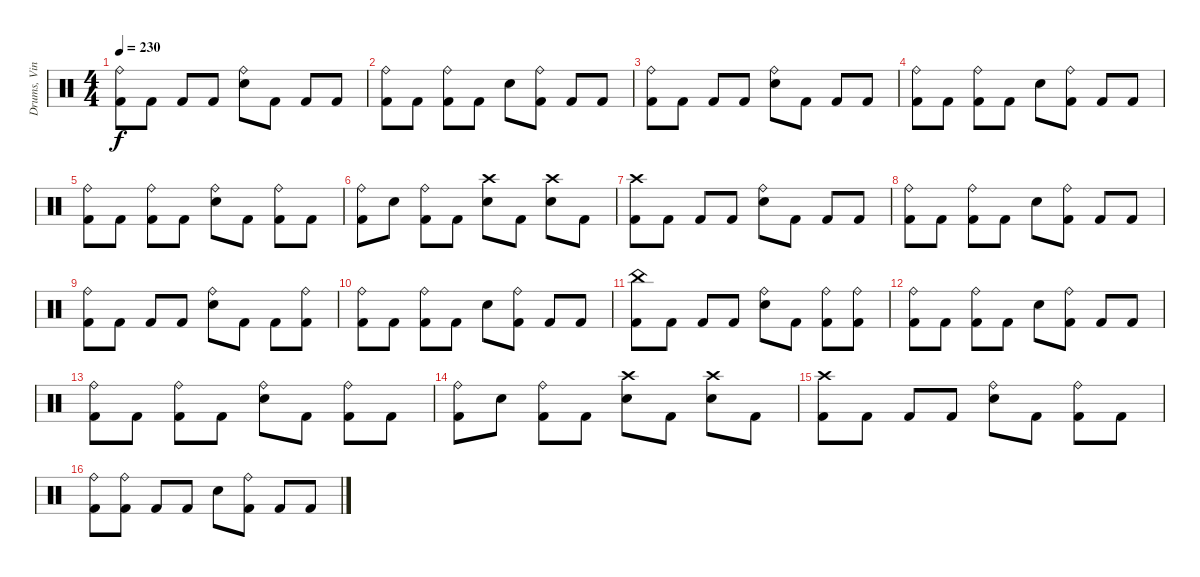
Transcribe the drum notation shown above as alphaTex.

\track ("Drums, Vinnie" "Drums, Vin") {instrument percussion}
\staff {score}
\articulation defaults
\ts (4 4)
\tempo 230
\clef neutral
\ks c
("Ride (bell)" "Kick (hit) 2").8{dy f} "Kick (hit) 2".8 "Kick (hit) 2".8 "Kick (hit) 2".8 ("Ride (bell)" "Electric Snare (hit)").8 "Kick (hit) 2".8 "Kick (hit) 2".8 "Kick (hit) 2".8 |
("Ride (bell)" "Kick (hit) 2").8 "Kick (hit) 2".8 ("Ride (bell)" "Kick (hit) 2").8 "Kick (hit) 2".8 "Electric Snare (hit)".8 ("Ride (bell)" "Kick (hit) 2").8 "Kick (hit) 2".8 "Kick (hit) 2".8 |
("Ride (bell)" "Kick (hit) 2").8 "Kick (hit) 2".8 "Kick (hit) 2".8 "Kick (hit) 2".8 ("Ride (bell)" "Electric Snare (hit)").8 "Kick (hit) 2".8 "Kick (hit) 2".8 "Kick (hit) 2".8 |
("Ride (bell)" "Kick (hit) 2").8 "Kick (hit) 2".8 ("Ride (bell)" "Kick (hit) 2").8 "Kick (hit) 2".8 "Electric Snare (hit)".8 ("Ride (bell)" "Kick (hit) 2").8 "Kick (hit) 2".8 "Kick (hit) 2".8 |
("Ride (bell)" "Kick (hit) 2").8 "Kick (hit) 2".8 ("Ride (bell)" "Kick (hit) 2").8 "Kick (hit) 2".8 ("Ride (bell)" "Electric Snare (hit)").8 "Kick (hit) 2".8 ("Ride (bell)" "Kick (hit) 2").8 "Kick (hit) 2".8 |
("Ride (bell)" "Kick (hit) 2").8 "Electric Snare (hit)".8 ("Ride (bell)" "Kick (hit) 2").8 "Kick (hit) 2".8 ("Crash high (hit)" "Electric Snare (hit)").8 "Kick (hit) 2".8 ("Crash high (hit)" "Electric Snare (hit)").8 "Kick (hit) 2".8 |
("Crash high (hit)" "Kick (hit) 2").8 "Kick (hit) 2".8 "Kick (hit) 2".8 "Kick (hit) 2".8 ("Ride (bell)" "Electric Snare (hit)").8 "Kick (hit) 2".8 "Kick (hit) 2".8 "Kick (hit) 2".8 |
("Ride (bell)" "Kick (hit) 2").8 "Kick (hit) 2".8 ("Ride (bell)" "Kick (hit) 2").8 "Kick (hit) 2".8 "Electric Snare (hit)".8 ("Ride (bell)" "Kick (hit) 2").8 "Kick (hit) 2".8 "Kick (hit) 2".8 |
("Ride (bell)" "Kick (hit) 2").8 "Kick (hit) 2".8 "Kick (hit) 2".8 "Kick (hit) 2".8 ("Ride (bell)" "Electric Snare (hit)").8 "Kick (hit) 2".8 "Kick (hit) 2".8 ("Ride (bell)" "Kick (hit) 2").8 |
("Ride (bell)" "Kick (hit) 2").8 "Kick (hit) 2".8 ("Ride (bell)" "Kick (hit) 2").8 "Kick (hit) 2".8 "Electric Snare (hit)".8 ("Ride (bell)" "Kick (hit) 2").8 "Kick (hit) 2".8 "Kick (hit) 2".8 |
("China (hit)" "Kick (hit) 2").8 "Kick (hit) 2".8 "Kick (hit) 2".8 "Kick (hit) 2".8 ("Ride (bell)" "Electric Snare (hit)").8 "Kick (hit) 2".8 ("Ride (bell)" "Kick (hit) 2").8 ("Ride (bell)" "Kick (hit) 2").8 |
("Ride (bell)" "Kick (hit) 2").8 "Kick (hit) 2".8 ("Ride (bell)" "Kick (hit) 2").8 "Kick (hit) 2".8 "Electric Snare (hit)".8 ("Ride (bell)" "Kick (hit) 2").8 "Kick (hit) 2".8 "Kick (hit) 2".8 |
("Ride (bell)" "Kick (hit) 2").8 "Kick (hit) 2".8 ("Ride (bell)" "Kick (hit) 2").8 "Kick (hit) 2".8 ("Ride (bell)" "Electric Snare (hit)").8 "Kick (hit) 2".8 ("Ride (bell)" "Kick (hit) 2").8 "Kick (hit) 2".8 |
("Ride (bell)" "Kick (hit) 2").8 "Electric Snare (hit)".8 ("Ride (bell)" "Kick (hit) 2").8 "Kick (hit) 2".8 ("Crash high (hit)" "Electric Snare (hit)").8 "Kick (hit) 2".8 ("Crash high (hit)" "Electric Snare (hit)").8 "Kick (hit) 2".8 |
("Crash high (hit)" "Kick (hit) 2").8 "Kick (hit) 2".8 "Kick (hit) 2".8 "Kick (hit) 2".8 ("Ride (bell)" "Electric Snare (hit)").8 "Kick (hit) 2".8 ("Ride (bell)" "Kick (hit) 2").8 "Kick (hit) 2".8 |
("Ride (bell)" "Kick (hit) 2").8 ("Ride (bell)" "Kick (hit) 2").8 "Kick (hit) 2".8 "Kick (hit) 2".8 "Electric Snare (hit)".8 ("Ride (bell)" "Kick (hit) 2").8 "Kick (hit) 2".8 "Kick (hit) 2".8
